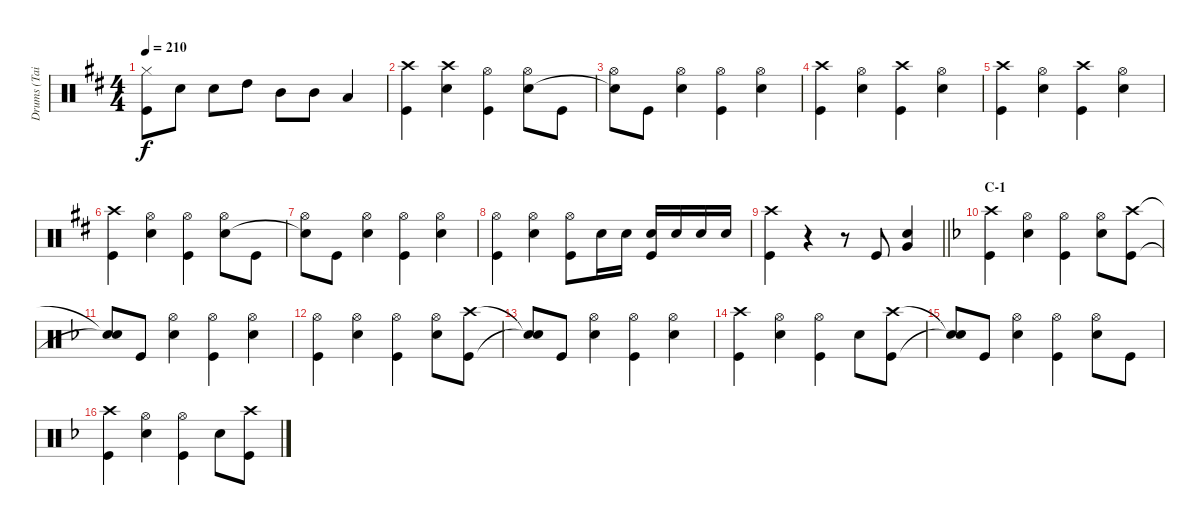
\track ("Drums (Tainaka Ritsu)" "Drums (Tai") {instrument percussion}
\staff {score}
\articulation defaults
\ts (4 4)
\tempo 210
\clef neutral
\ks d
("Hi-Hat (closed)" "Kick (hit)").8{dy f} "Snare (hit) 2".8 "Snare (hit) 2".8 "High Tom (hit)".8 "Mid Tom (hit)".8 "Mid Tom (hit)".8 "Low Tom (hit)".4 |
("Crash high (hit)" "Kick (hit)").4 ("Crash high (hit)" "Snare (hit) 2").4 ("Hi-Hat (open)" "Kick (hit)").4 ("Hi-Hat (open)" "Snare (hit) 2").8 "Kick (hit)".8 |
("Hi-Hat (open)" "Snare (hit)"{t}).8 "Kick (hit)".8 ("Hi-Hat (open)" "Snare (hit) 2").4 ("Hi-Hat (open)" "Kick (hit)").4 ("Hi-Hat (open)" "Snare (hit) 2").4 |
("Crash high (hit)" "Kick (hit)").4 ("Hi-Hat (open)" "Snare (hit) 2").4 ("Crash high (hit)" "Kick (hit)").4 ("Hi-Hat (open)" "Snare (hit) 2").4 |
("Crash high (hit)" "Kick (hit)").4 ("Hi-Hat (open)" "Snare (hit) 2").4 ("Crash high (hit)" "Kick (hit)").4 ("Hi-Hat (open)" "Snare (hit) 2").4 |
("Crash high (hit)" "Kick (hit)").4 ("Hi-Hat (open)" "Snare (hit) 2").4 ("Hi-Hat (open)" "Kick (hit)").4 ("Hi-Hat (open)" "Snare (hit) 2").8 "Kick (hit)".8 |
("Hi-Hat (open)" "Snare (hit)"{t}).8 "Kick (hit)".8 ("Hi-Hat (open)" "Snare (hit) 2").4 ("Hi-Hat (open)" "Kick (hit)").4 ("Hi-Hat (open)" "Snare (hit) 2").4 |
("Hi-Hat (open)" "Kick (hit)").4 ("Hi-Hat (open)" "Snare (hit) 2").4 ("Hi-Hat (open)" "Kick (hit)").8 "Snare (hit) 2".16 "Snare (hit) 2".16 ("Snare (hit) 2" "Kick (hit)").16 "Snare (hit) 2".16 "Snare (hit) 2".16 "Snare (hit) 2".16 |
\barLineRight lightlight
("Crash high (hit)" "Kick (hit)").4 r.4 r.8 "Kick (hit)".8 ("Snare (hit) 2" "Very Low Tom (hit)").4 |
\section ("" "C-1")
\ks f
("Crash high (hit)" "Kick (hit)").4 ("Hi-Hat (open)" "Snare (hit) 2").4 ("Hi-Hat (open)" "Kick (hit)").4 ("Hi-Hat (open)" "Snare (hit) 2").8 ("Crash high (hit)" "Kick (hit)").8 |
("Snare (hit)"{t} "Snare (hit)"{t}).8 "Kick (hit)".8 ("Hi-Hat (open)" "Snare (hit) 2").4 ("Hi-Hat (open)" "Kick (hit)").4 ("Hi-Hat (open)" "Snare (hit) 2").4 |
("Hi-Hat (open)" "Kick (hit)").4 ("Hi-Hat (open)" "Snare (hit) 2").4 ("Hi-Hat (open)" "Kick (hit)").4 ("Hi-Hat (open)" "Snare (hit) 2").8 ("Crash high (hit)" "Kick (hit)").8 |
("Snare (hit)"{t} "Snare (hit)"{t}).8 "Kick (hit)".8 ("Hi-Hat (open)" "Snare (hit) 2").4 ("Hi-Hat (open)" "Kick (hit)").4 ("Hi-Hat (open)" "Snare (hit) 2").4 |
("Crash high (hit)" "Kick (hit)").4 ("Hi-Hat (open)" "Snare (hit) 2").4 ("Hi-Hat (open)" "Kick (hit)").4 "Snare (hit) 2".8 ("Crash high (hit)" "Kick (hit)").8 |
("Snare (hit)"{t} "Snare (hit)"{t}).8 "Kick (hit)".8 ("Hi-Hat (open)" "Snare (hit) 2").4 ("Hi-Hat (open)" "Kick (hit)").4 ("Hi-Hat (open)" "Snare (hit) 2").8 "Kick (hit)".8 |
("Crash high (hit)" "Kick (hit)").4 ("Hi-Hat (open)" "Snare (hit) 2").4 ("Hi-Hat (open)" "Kick (hit)").4 "Snare (hit) 2".8 ("Crash high (hit)" "Kick (hit)").8
